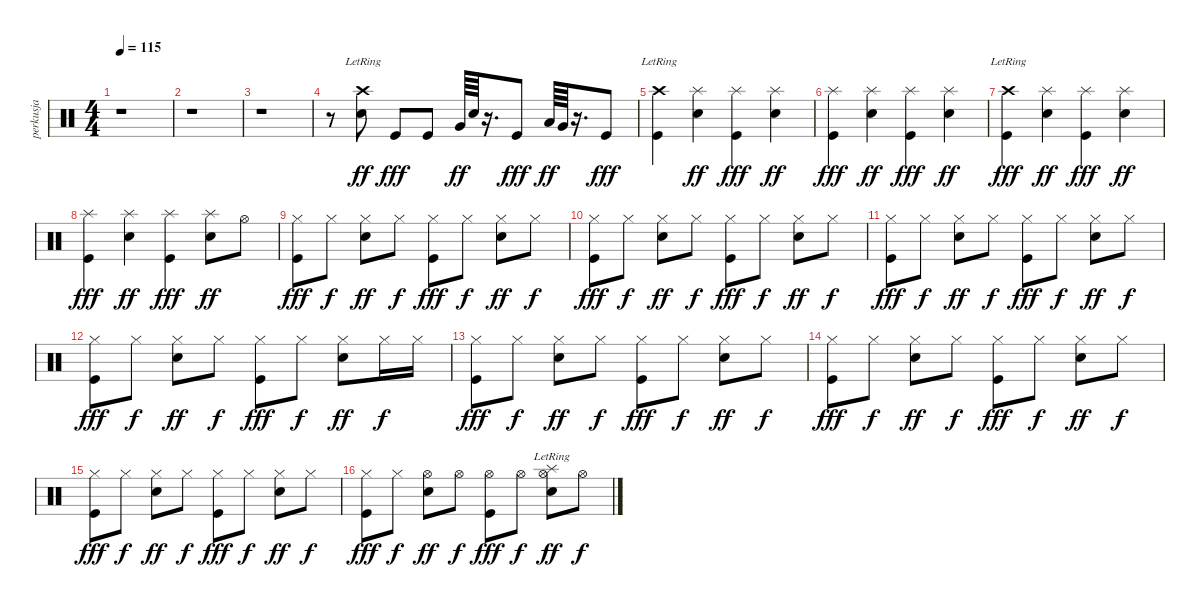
\track ("perkusja" "perkusja") {instrument percussion}
\staff {score}
\articulation defaults
\ts (4 4)
\tempo 115
\clef neutral
\ks c
r.1{dy ff} |
r.1 |
r.1 |
r.8 ("Crash high (hit)"{lr} "Electric Snare (hit)").8 "Kick (hit)".8{dy fff} "Kick (hit)".8 "Very Low Tom (hit)".64{dy ff} "Electric Snare (hit)".64 r.16{d} "Kick (hit)".8{dy fff} "Low Floor Tom (hit)".64{dy ff} "Very Low Tom (hit)".64 r.16{d} "Kick (hit)".8{dy fff} |
("Crash high (hit)"{lr} "Kick (hit)").4 ("Splash (hit)" "Electric Snare (hit)").4{dy ff} ("Splash (hit)" "Kick (hit)").4{dy fff} ("Splash (hit)" "Electric Snare (hit)").4{dy ff} |
("Splash (hit)" "Kick (hit)").4{dy fff} ("Splash (hit)" "Electric Snare (hit)").4{dy ff} ("Splash (hit)" "Kick (hit)").4{dy fff} ("Splash (hit)" "Electric Snare (hit)").4{dy ff} |
("Crash high (hit)"{lr} "Kick (hit)").4{dy fff} ("Splash (hit)" "Electric Snare (hit)").4{dy ff} ("Splash (hit)" "Kick (hit)").4{dy fff} ("Splash (hit)" "Electric Snare (hit)").4{dy ff} |
("Splash (hit)" "Kick (hit)").4{dy fff} ("Splash (hit)" "Electric Snare (hit)").4{dy ff} ("Splash (hit)" "Kick (hit)").4{dy fff} ("Splash (hit)" "Electric Snare (hit)").8{dy ff} "Hi-Hat (open)".8 |
("Hi-Hat (closed)" "Kick (hit)").8{dy fff} "Hi-Hat (closed)".8{dy f} ("Hi-Hat (closed)" "Electric Snare (hit)").8{dy ff} "Hi-Hat (closed)".8{dy f} ("Hi-Hat (closed)" "Kick (hit)").8{dy fff} "Hi-Hat (closed)".8{dy f} ("Hi-Hat (closed)" "Electric Snare (hit)").8{dy ff} "Hi-Hat (closed)".8{dy f} |
("Hi-Hat (closed)" "Kick (hit)").8{dy fff} "Hi-Hat (closed)".8{dy f} ("Hi-Hat (closed)" "Electric Snare (hit)").8{dy ff} "Hi-Hat (closed)".8{dy f} ("Hi-Hat (closed)" "Kick (hit)").8{dy fff} "Hi-Hat (closed)".8{dy f} ("Hi-Hat (closed)" "Electric Snare (hit)").8{dy ff} "Hi-Hat (closed)".8{dy f} |
("Hi-Hat (closed)" "Kick (hit)").8{dy fff} "Hi-Hat (closed)".8{dy f} ("Hi-Hat (closed)" "Electric Snare (hit)").8{dy ff} "Hi-Hat (closed)".8{dy f} ("Hi-Hat (closed)" "Kick (hit)").8{dy fff} "Hi-Hat (closed)".8{dy f} ("Hi-Hat (closed)" "Electric Snare (hit)").8{dy ff} "Hi-Hat (closed)".8{dy f} |
("Hi-Hat (closed)" "Kick (hit)").8{dy fff} "Hi-Hat (closed)".8{dy f} ("Hi-Hat (closed)" "Electric Snare (hit)").8{dy ff} "Hi-Hat (closed)".8{dy f} ("Hi-Hat (closed)" "Kick (hit)").8{dy fff} "Hi-Hat (closed)".8{dy f} ("Hi-Hat (closed)" "Electric Snare (hit)").8{dy ff} "Hi-Hat (closed)".16{dy f} "Hi-Hat (closed)".16 |
("Hi-Hat (closed)" "Kick (hit)").8{dy fff} "Hi-Hat (closed)".8{dy f} ("Hi-Hat (closed)" "Electric Snare (hit)").8{dy ff} "Hi-Hat (closed)".8{dy f} ("Hi-Hat (closed)" "Kick (hit)").8{dy fff} "Hi-Hat (closed)".8{dy f} ("Hi-Hat (closed)" "Electric Snare (hit)").8{dy ff} "Hi-Hat (closed)".8{dy f} |
("Hi-Hat (closed)" "Kick (hit)").8{dy fff} "Hi-Hat (closed)".8{dy f} ("Hi-Hat (closed)" "Electric Snare (hit)").8{dy ff} "Hi-Hat (closed)".8{dy f} ("Hi-Hat (closed)" "Kick (hit)").8{dy fff} "Hi-Hat (closed)".8{dy f} ("Hi-Hat (closed)" "Electric Snare (hit)").8{dy ff} "Hi-Hat (closed)".8{dy f} |
("Hi-Hat (closed)" "Kick (hit)").8{dy fff} "Hi-Hat (closed)".8{dy f} ("Hi-Hat (closed)" "Electric Snare (hit)").8{dy ff} "Hi-Hat (closed)".8{dy f} ("Hi-Hat (closed)" "Kick (hit)").8{dy fff} "Hi-Hat (closed)".8{dy f} ("Hi-Hat (closed)" "Electric Snare (hit)").8{dy ff} "Hi-Hat (closed)".8{dy f} |
("Hi-Hat (closed)" "Kick (hit)").8{dy fff} "Hi-Hat (closed)".8{dy f} ("Hi-Hat (open)" "Electric Snare (hit)").8{dy ff} "Hi-Hat (open)".8{dy f} ("Hi-Hat (open)" "Kick (hit)").8{dy fff} "Hi-Hat (open)".8{dy f} ("Splash (hit)"{lr} "Hi-Hat (open)" "Electric Snare (hit)").8{dy ff} "Hi-Hat (open)".8{dy f}
